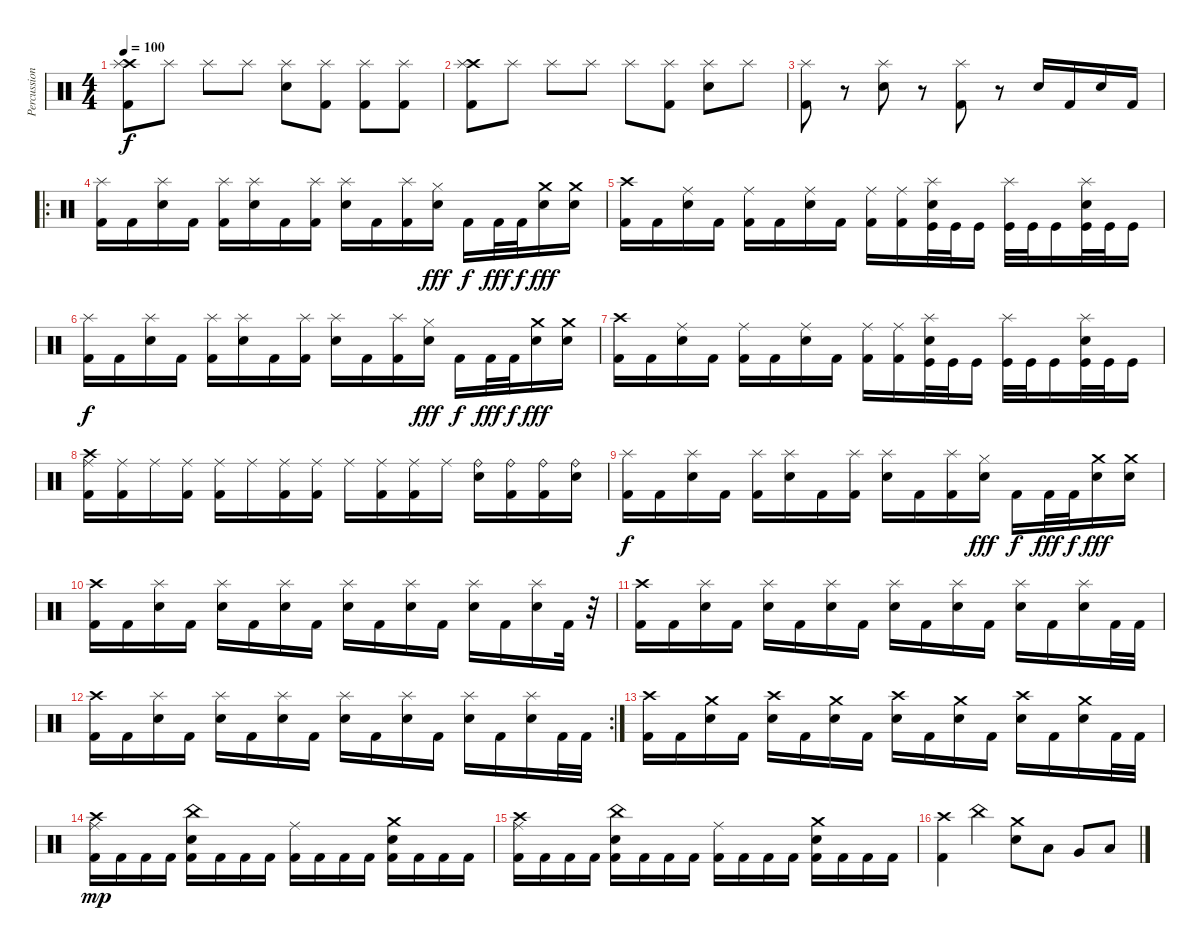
\track ("Percussions" "Percussion") {instrument percussion}
\staff {score}
\articulation defaults
\ts (4 4)
\tempo 100
\clef neutral
\ks c
("Crash high (hit)" "Kick (hit) 2" "Splash (hit)").8{dy f} "Splash (hit)".8 "Splash (hit)".8 "Splash (hit)".8 ("Snare (hit) 2" "Splash (hit)").8 ("Kick (hit) 2" "Splash (hit)").8 ("Kick (hit) 2" "Splash (hit)").8 ("Kick (hit) 2" "Splash (hit)").8 |
("Crash high (hit)" "Kick (hit) 2" "Splash (hit)").8 "Splash (hit)".8 "Splash (hit)".8 "Splash (hit)".8 "Splash (hit)".8 ("Kick (hit) 2" "Splash (hit)").8 ("Snare (hit) 2" "Splash (hit)").8 "Splash (hit)".8 |
("Splash (hit)" "Kick (hit) 2").8 r.8 ("Splash (hit)" "Snare (hit) 2").8 r.8 ("Splash (hit)" "Kick (hit) 2").8 r.8 "Snare (hit) 2".16 "Kick (hit) 2".16 "Snare (hit) 2".16 "Kick (hit) 2".16 |
\ro
("Kick (hit) 2" "Splash (hit)").16 "Kick (hit) 2".16 ("Splash (hit)" "Snare (hit) 2").16 "Kick (hit) 2".16 ("Kick (hit) 2" "Splash (hit)").16 ("Splash (hit)" "Snare (hit) 2").16 "Kick (hit) 2".16 ("Kick (hit) 2" "Splash (hit)").16 ("Splash (hit)" "Snare (hit) 2").16 "Kick (hit) 2".16 ("Kick (hit) 2" "Splash (hit)").16 ("Snare (hit) 2" "Hi-Hat (closed)").16{dy fff} "Kick (hit) 2".16{dy f} "Kick (hit) 2".32{dy fff} "Kick (hit) 2".32{dy f} ("Crash medium (hit)" "Snare (hit) 2").16{dy fff} ("Crash medium (hit)" "Snare (hit) 2").16 |
("Crash high (hit)" "Kick (hit) 2").16 "Kick (hit) 2".16 ("Ride (middle)" "Snare (hit) 2").16 "Kick (hit) 2".16 ("Ride (middle)" "Kick (hit) 2").16 "Kick (hit) 2".16 ("Ride (middle)" "Snare (hit) 2").16 "Kick (hit) 2".16 ("Ride (middle)" "Kick (hit) 2").16 ("Ride (middle)" "Kick (hit) 2").16 ("Splash (hit)" "Snare (hit) 2" "Kick (hit)").32 "Kick (hit)".32 "Kick (hit)".16 ("Splash (hit)" "Kick (hit)").32 "Kick (hit)".32 "Kick (hit)".16 ("Splash (hit)" "Snare (hit) 2" "Kick (hit)").32 "Kick (hit)".32 "Kick (hit)".16 |
("Kick (hit) 2" "Splash (hit)").16{dy f} "Kick (hit) 2".16 ("Splash (hit)" "Snare (hit) 2").16 "Kick (hit) 2".16 ("Kick (hit) 2" "Splash (hit)").16 ("Splash (hit)" "Snare (hit) 2").16 "Kick (hit) 2".16 ("Kick (hit) 2" "Splash (hit)").16 ("Splash (hit)" "Snare (hit) 2").16 "Kick (hit) 2".16 ("Kick (hit) 2" "Splash (hit)").16 ("Snare (hit) 2" "Hi-Hat (closed)").16{dy fff} "Kick (hit) 2".16{dy f} "Kick (hit) 2".32{dy fff} "Kick (hit) 2".32{dy f} ("Crash medium (hit)" "Snare (hit) 2").16{dy fff} ("Crash medium (hit)" "Snare (hit) 2").16 |
("Crash high (hit)" "Kick (hit) 2").16 "Kick (hit) 2".16 ("Ride (middle)" "Snare (hit) 2").16 "Kick (hit) 2".16 ("Ride (middle)" "Kick (hit) 2").16 "Kick (hit) 2".16 ("Ride (middle)" "Snare (hit) 2").16 "Kick (hit) 2".16 ("Ride (middle)" "Kick (hit) 2").16 ("Ride (middle)" "Kick (hit) 2").16 ("Splash (hit)" "Snare (hit) 2" "Kick (hit)").32 "Kick (hit)".32 "Kick (hit)".16 ("Splash (hit)" "Kick (hit)").32 "Kick (hit)".32 "Kick (hit)".16 ("Splash (hit)" "Snare (hit) 2" "Kick (hit)").32 "Kick (hit)".32 "Kick (hit)".16 |
("Ride (middle)" "Kick (hit) 2" "Crash high (hit)").16 ("Ride (middle)" "Kick (hit) 2").16 "Ride (middle)".16 ("Ride (middle)" "Kick (hit) 2").16 ("Ride (middle)" "Kick (hit) 2").16 "Ride (middle)".16 ("Ride (middle)" "Kick (hit) 2").16 ("Ride (middle)" "Kick (hit) 2").16 "Ride (middle)".16 ("Ride (middle)" "Kick (hit) 2").16 ("Ride (middle)" "Kick (hit) 2").16 "Ride (middle)".16 ("Ride (bell)" "Snare (hit) 2").16 ("Ride (bell)" "Kick (hit) 2").16 ("Ride (bell)" "Kick (hit) 2").16 ("Ride (bell)" "Snare (hit) 2").16 |
("Kick (hit) 2" "Splash (hit)").16{dy f} "Kick (hit) 2".16 ("Splash (hit)" "Snare (hit) 2").16 "Kick (hit) 2".16 ("Kick (hit) 2" "Splash (hit)").16 ("Splash (hit)" "Snare (hit) 2").16 "Kick (hit) 2".16 ("Kick (hit) 2" "Splash (hit)").16 ("Splash (hit)" "Snare (hit) 2").16 "Kick (hit) 2".16 ("Kick (hit) 2" "Splash (hit)").16 ("Snare (hit) 2" "Hi-Hat (closed)").16{dy fff} "Kick (hit) 2".16{dy f} "Kick (hit) 2".32{dy fff} "Kick (hit) 2".32{dy f} ("Crash medium (hit)" "Snare (hit) 2").16{dy fff} ("Crash medium (hit)" "Snare (hit) 2").16 |
("Crash high (hit)" "Kick (hit) 2").16 "Kick (hit) 2".16 ("Splash (hit)" "Snare (hit) 2").16 "Kick (hit) 2".16 ("Splash (hit)" "Snare (hit) 2").16 "Kick (hit) 2".16 ("Splash (hit)" "Snare (hit) 2").16 "Kick (hit) 2".16 ("Splash (hit)" "Snare (hit) 2").16 "Kick (hit) 2".16 ("Splash (hit)" "Snare (hit) 2").16 "Kick (hit) 2".16 ("Splash (hit)" "Snare (hit) 2").16 "Kick (hit) 2".16 ("Splash (hit)" "Snare (hit) 2").16 "Kick (hit) 2".32 r.32 |
("Crash high (hit)" "Kick (hit) 2").16 "Kick (hit) 2".16 ("Splash (hit)" "Snare (hit) 2").16 "Kick (hit) 2".16 ("Splash (hit)" "Snare (hit) 2").16 "Kick (hit) 2".16 ("Splash (hit)" "Snare (hit) 2").16 "Kick (hit) 2".16 ("Splash (hit)" "Snare (hit) 2").16 "Kick (hit) 2".16 ("Splash (hit)" "Snare (hit) 2").16 "Kick (hit) 2".16 ("Splash (hit)" "Snare (hit) 2").16 "Kick (hit) 2".16 ("Splash (hit)" "Snare (hit) 2").16 "Kick (hit) 2".32 "Kick (hit) 2".32 |
\rc 2
("Crash high (hit)" "Kick (hit) 2").16 "Kick (hit) 2".16 ("Splash (hit)" "Snare (hit) 2").16 "Kick (hit) 2".16 ("Splash (hit)" "Snare (hit) 2").16 "Kick (hit) 2".16 ("Splash (hit)" "Snare (hit) 2").16 "Kick (hit) 2".16 ("Splash (hit)" "Snare (hit) 2").16 "Kick (hit) 2".16 ("Splash (hit)" "Snare (hit) 2").16 "Kick (hit) 2".16 ("Splash (hit)" "Snare (hit) 2").16 "Kick (hit) 2".16 ("Splash (hit)" "Snare (hit) 2").16 "Kick (hit) 2".32 "Kick (hit) 2".32 |
("Crash high (hit)" "Kick (hit) 2").16 "Kick (hit) 2".16 ("Crash medium (hit)" "Snare (hit) 2").16 "Kick (hit) 2".16 ("Crash high (hit)" "Snare (hit) 2").16 "Kick (hit) 2".16 ("Crash medium (hit)" "Snare (hit) 2").16 "Kick (hit) 2".16 ("Crash high (hit)" "Snare (hit) 2").16 "Kick (hit) 2".16 ("Crash medium (hit)" "Snare (hit) 2").16 "Kick (hit) 2".16 ("Crash high (hit)" "Snare (hit) 2").16 "Kick (hit) 2".16 ("Crash medium (hit)" "Snare (hit) 2").16 "Kick (hit) 2".32 "Kick (hit) 2".32 |
("Kick (hit) 2" "Ride (middle)" "Crash high (hit)").16{dy mp} "Kick (hit) 2".16 "Kick (hit) 2".16 "Kick (hit) 2".16 ("Kick (hit) 2" "China (hit)" "Snare (hit) 2").16 "Kick (hit) 2".16 "Kick (hit) 2".16 "Kick (hit) 2".16 ("Kick (hit) 2" "Ride (middle)").16 "Kick (hit) 2".16 "Kick (hit) 2".16 "Kick (hit) 2".16 ("Kick (hit) 2" "Crash medium (hit)" "Snare (hit) 2").16 "Kick (hit) 2".16 "Kick (hit) 2".16 "Kick (hit) 2".16 |
("Kick (hit) 2" "Ride (middle)" "Crash high (hit)").16 "Kick (hit) 2".16 "Kick (hit) 2".16 "Kick (hit) 2".16 ("Kick (hit) 2" "China (hit)" "Snare (hit) 2").16 "Kick (hit) 2".16 "Kick (hit) 2".16 "Kick (hit) 2".16 ("Kick (hit) 2" "Ride (middle)").16 "Kick (hit) 2".16 "Kick (hit) 2".16 "Kick (hit) 2".16 ("Kick (hit) 2" "Crash medium (hit)" "Snare (hit) 2").16 "Kick (hit) 2".16 "Kick (hit) 2".16 "Kick (hit) 2".16 |
("Crash high (hit)" "Kick (hit) 2").4 "China (hit)".4 ("Crash medium (hit)" "Snare (hit) 2").8 "Low Tom (hit)".8 "Very Low Tom (hit)".8 "Low Floor Tom (hit)".8
